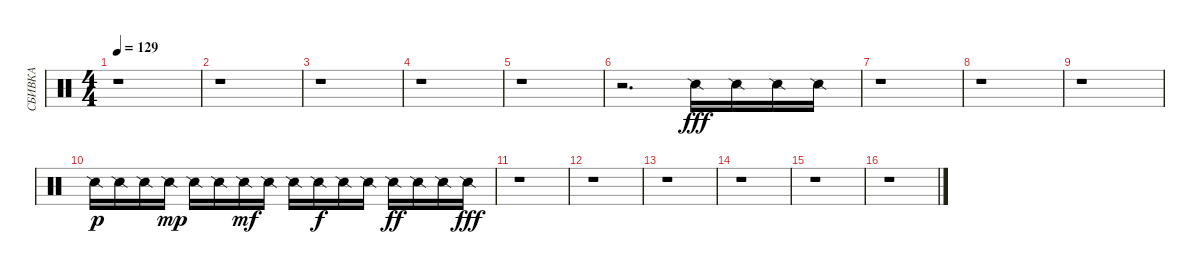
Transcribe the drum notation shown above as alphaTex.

\track ("СБИВКА" "СБИВКА") {instrument percussion}
\staff {score}
\articulation defaults
\ts (4 4)
\tempo 129
\clef neutral
\ks c
r.1{dy fff} |
r.1 |
r.1 |
r.1 |
r.1 |
r.2{d} "Snare (side stick) 2".16 "Snare (side stick) 2".16 "Snare (side stick) 2".16 "Snare (side stick) 2".16 |
r.1 |
r.1 |
r.1 |
"Snare (side stick) 2".16{dy p} "Snare (side stick) 2".16 "Snare (side stick) 2".16 "Snare (side stick) 2".16{dy mp} "Snare (side stick) 2".16 "Snare (side stick) 2".16 "Snare (side stick) 2".16{dy mf} "Snare (side stick) 2".16 "Snare (side stick) 2".16 "Snare (side stick) 2".16{dy f} "Snare (side stick) 2".16 "Snare (side stick) 2".16 "Snare (side stick) 2".16{dy ff} "Snare (side stick) 2".16 "Snare (side stick) 2".16 "Snare (side stick) 2".16{dy fff} |
r.1 |
r.1 |
r.1 |
r.1 |
r.1 |
r.1
